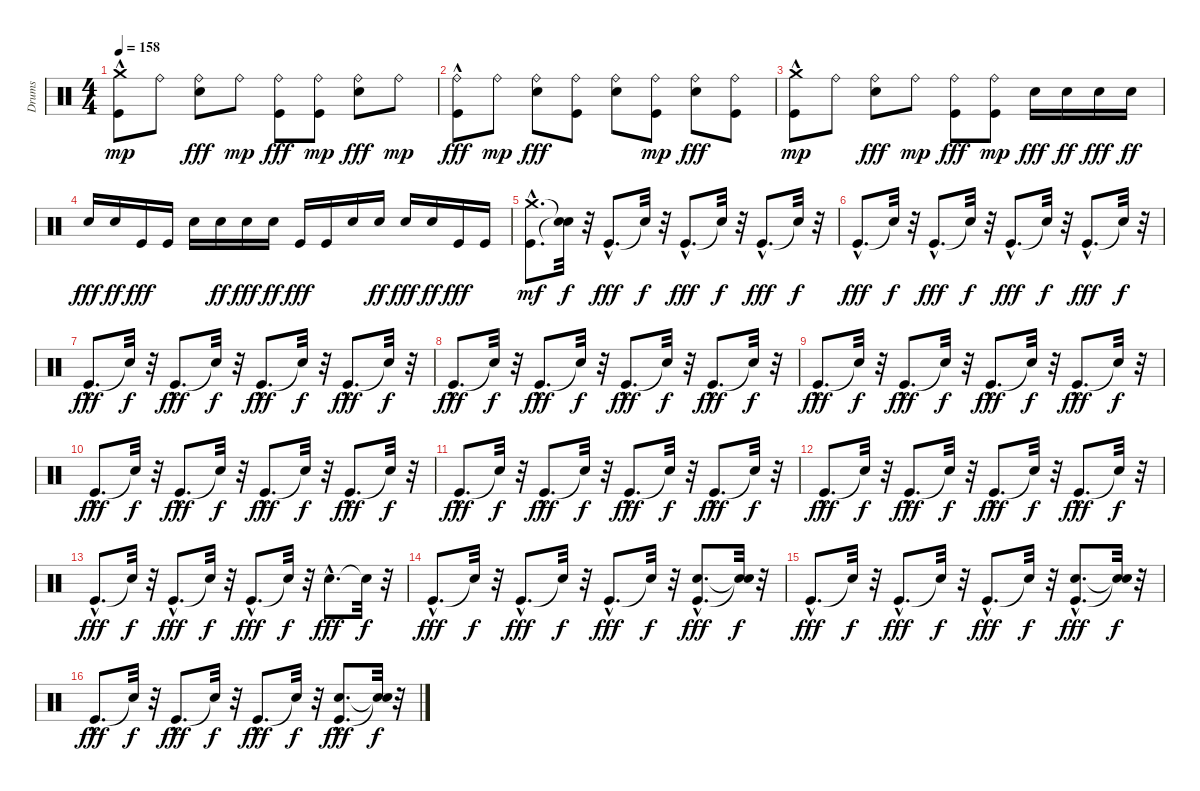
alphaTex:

\track ("Drums" "Drums") {instrument percussion}
\staff {score}
\articulation defaults
\ts (4 4)
\tempo 158
\clef neutral
\ks c
("Kick (hit)"{hac} "Crash medium (hit)").8{dy mp} "Ride (bell)".8 ("Electric Snare (hit)" "Ride (bell)").8{dy fff} "Ride (bell)".8{dy mp} ("Kick (hit)" "Ride (bell)").8{dy fff} ("Kick (hit)" "Ride (bell)").8{dy mp} ("Electric Snare (hit)" "Ride (bell)").8{dy fff} "Ride (bell)".8{dy mp} |
("Kick (hit)"{hac} "Ride (bell)").8{dy fff} "Ride (bell)".8{dy mp} ("Electric Snare (hit)" "Ride (bell)").8{dy fff} ("Ride (bell)" "Kick (hit)").8 ("Ride (bell)" "Electric Snare (hit)").8 ("Kick (hit)" "Ride (bell)").8{dy mp} ("Electric Snare (hit)" "Ride (bell)").8{dy fff} ("Ride (bell)" "Kick (hit)").8 |
("Kick (hit)"{hac} "Crash medium (hit)").8{dy mp} "Ride (bell)".8 ("Electric Snare (hit)" "Ride (bell)").8{dy fff} "Ride (bell)".8{dy mp} ("Kick (hit)" "Ride (bell)").8{dy fff} ("Kick (hit)" "Ride (bell)").8{dy mp} "Electric Snare (hit)".16{dy fff} "Electric Snare (hit)".16{dy ff} "Electric Snare (hit)".16{dy fff} "Electric Snare (hit)".16{dy ff} |
"Electric Snare (hit)".16{dy fff} "Electric Snare (hit)".16{dy ff} "Kick (hit)".16{dy fff} "Kick (hit)".16 "Electric Snare (hit)".16 "Electric Snare (hit)".16{dy ff} "Electric Snare (hit)".16{dy fff} "Electric Snare (hit)".16{dy ff} "Kick (hit)".16{dy fff} "Kick (hit)".16 "Electric Snare (hit)".16 "Electric Snare (hit)".16{dy ff} "Electric Snare (hit)".16{dy fff} "Electric Snare (hit)".16{dy ff} "Kick (hit)".16{dy fff} "Kick (hit)".16 |
("Kick (hit)"{hac} "Crash medium (hit)"{hac}).8{d dy mf} ("Snare (hit)"{t} "Snare (hit)"{t}).32{dy f} r.32 "Kick (hit)"{hac}.8{d dy fff} "Snare (hit)"{t}.32{dy f} r.32 "Kick (hit)"{hac}.8{d dy fff} "Snare (hit)"{t}.32{dy f} r.32 "Kick (hit)"{hac}.8{d dy fff} "Snare (hit)"{t}.32{dy f} r.32 |
"Kick (hit)"{hac}.8{d dy fff} "Snare (hit)"{t}.32{dy f} r.32 "Kick (hit)"{hac}.8{d dy fff} "Snare (hit)"{t}.32{dy f} r.32 "Kick (hit)"{hac}.8{d dy fff} "Snare (hit)"{t}.32{dy f} r.32 "Kick (hit)"{hac}.8{d dy fff} "Snare (hit)"{t}.32{dy f} r.32 |
"Kick (hit)"{hac}.8{d dy fff} "Snare (hit)"{t}.32{dy f} r.32 "Kick (hit)"{hac}.8{d dy fff} "Snare (hit)"{t}.32{dy f} r.32 "Kick (hit)"{hac}.8{d dy fff} "Snare (hit)"{t}.32{dy f} r.32 "Kick (hit)"{hac}.8{d dy fff} "Snare (hit)"{t}.32{dy f} r.32 |
"Kick (hit)"{hac}.8{d dy fff} "Snare (hit)"{t}.32{dy f} r.32 "Kick (hit)"{hac}.8{d dy fff} "Snare (hit)"{t}.32{dy f} r.32 "Kick (hit)"{hac}.8{d dy fff} "Snare (hit)"{t}.32{dy f} r.32 "Kick (hit)"{hac}.8{d dy fff} "Snare (hit)"{t}.32{dy f} r.32 |
"Kick (hit)"{hac}.8{d dy fff} "Snare (hit)"{t}.32{dy f} r.32 "Kick (hit)"{hac}.8{d dy fff} "Snare (hit)"{t}.32{dy f} r.32 "Kick (hit)"{hac}.8{d dy fff} "Snare (hit)"{t}.32{dy f} r.32 "Kick (hit)"{hac}.8{d dy fff} "Snare (hit)"{t}.32{dy f} r.32 |
"Kick (hit)"{hac}.8{d dy fff} "Snare (hit)"{t}.32{dy f} r.32 "Kick (hit)"{hac}.8{d dy fff} "Snare (hit)"{t}.32{dy f} r.32 "Kick (hit)"{hac}.8{d dy fff} "Snare (hit)"{t}.32{dy f} r.32 "Kick (hit)"{hac}.8{d dy fff} "Snare (hit)"{t}.32{dy f} r.32 |
"Kick (hit)"{hac}.8{d dy fff} "Snare (hit)"{t}.32{dy f} r.32 "Kick (hit)"{hac}.8{d dy fff} "Snare (hit)"{t}.32{dy f} r.32 "Kick (hit)"{hac}.8{d dy fff} "Snare (hit)"{t}.32{dy f} r.32 "Kick (hit)"{hac}.8{d dy fff} "Snare (hit)"{t}.32{dy f} r.32 |
"Kick (hit)"{hac}.8{d dy fff} "Snare (hit)"{t}.32{dy f} r.32 "Kick (hit)"{hac}.8{d dy fff} "Snare (hit)"{t}.32{dy f} r.32 "Kick (hit)"{hac}.8{d dy fff} "Snare (hit)"{t}.32{dy f} r.32 "Kick (hit)"{hac}.8{d dy fff} "Snare (hit)"{t}.32{dy f} r.32 |
"Kick (hit)"{hac}.8{d dy fff} "Snare (hit)"{t}.32{dy f} r.32 "Kick (hit)"{hac}.8{d dy fff} "Snare (hit)"{t}.32{dy f} r.32 "Kick (hit)"{hac}.8{d dy fff} "Snare (hit)"{t}.32{dy f} r.32 "Electric Snare (hit)"{hac}.8{d dy fff} "Snare (hit)"{t}.32{dy f} r.32 |
"Kick (hit)"{hac}.8{d dy fff} "Snare (hit)"{t}.32{dy f} r.32 "Kick (hit)"{hac}.8{d dy fff} "Snare (hit)"{t}.32{dy f} r.32 "Kick (hit)"{hac}.8{d dy fff} "Snare (hit)"{t}.32{dy f} r.32 ("Electric Snare (hit)"{hac} "Kick (hit)"{hac}).8{d dy fff} ("Snare (hit)"{t} "Snare (hit)"{t}).32{dy f} r.32 |
"Kick (hit)"{hac}.8{d dy fff} "Snare (hit)"{t}.32{dy f} r.32 "Kick (hit)"{hac}.8{d dy fff} "Snare (hit)"{t}.32{dy f} r.32 "Kick (hit)"{hac}.8{d dy fff} "Snare (hit)"{t}.32{dy f} r.32 ("Electric Snare (hit)"{hac} "Kick (hit)"{hac}).8{d dy fff} ("Snare (hit)"{t} "Snare (hit)"{t}).32{dy f} r.32 |
"Kick (hit)"{hac}.8{d dy fff} "Snare (hit)"{t}.32{dy f} r.32 "Kick (hit)"{hac}.8{d dy fff} "Snare (hit)"{t}.32{dy f} r.32 "Kick (hit)"{hac}.8{d dy fff} "Snare (hit)"{t}.32{dy f} r.32 ("Electric Snare (hit)"{hac} "Kick (hit)"{hac}).8{d dy fff} ("Snare (hit)"{t} "Snare (hit)"{t}).32{dy f} r.32
